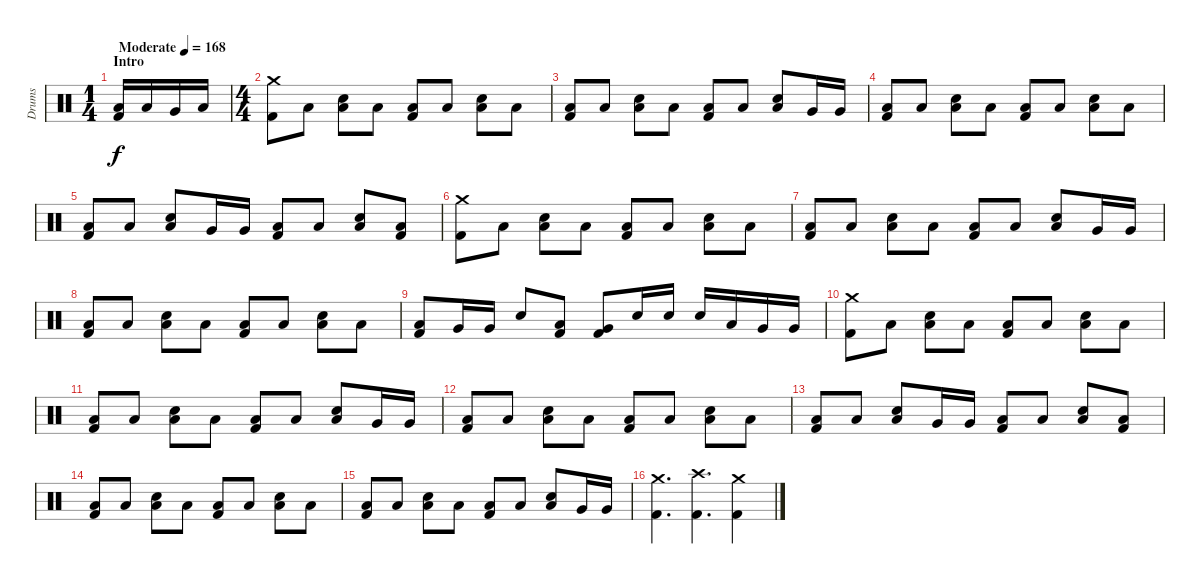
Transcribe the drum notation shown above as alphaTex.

\track ("Drums" "Drums") {instrument percussion}
\staff {score}
\articulation defaults
\ts (1 4)
\section ("" "Intro")
\tempo (168 "Moderate")
\clef neutral
\ks c
("Low Tom (hit)" "Kick (hit) 2").16{dy f} "Low Tom (hit)".16 "Very Low Tom (hit)".16 "Low Floor Tom (hit)".16 |
\ts (4 4)
("Crash medium (hit)" "Kick (hit) 2").8 "Low Floor Tom (hit)".8 ("Low Floor Tom (hit)" "Electric Snare (hit)").8 "Low Floor Tom (hit)".8 ("Low Floor Tom (hit)" "Kick (hit) 2").8 "Low Floor Tom (hit)".8 ("Low Floor Tom (hit)" "Electric Snare (hit)").8 "Low Floor Tom (hit)".8 |
("Low Floor Tom (hit)" "Kick (hit) 2").8 "Low Floor Tom (hit)".8 ("Low Floor Tom (hit)" "Electric Snare (hit)").8 "Low Floor Tom (hit)".8 ("Low Floor Tom (hit)" "Kick (hit) 2").8 "Low Floor Tom (hit)".8 ("Low Floor Tom (hit)" "Electric Snare (hit)").8 "Very Low Tom (hit)".16 "Very Low Tom (hit)".16 |
("Low Floor Tom (hit)" "Kick (hit) 2").8 "Low Floor Tom (hit)".8 ("Low Floor Tom (hit)" "Electric Snare (hit)").8 "Low Floor Tom (hit)".8 ("Low Floor Tom (hit)" "Kick (hit) 2").8 "Low Floor Tom (hit)".8 ("Low Floor Tom (hit)" "Electric Snare (hit)").8 "Low Floor Tom (hit)".8 |
("Low Floor Tom (hit)" "Kick (hit) 2").8 "Low Floor Tom (hit)".8 ("Low Floor Tom (hit)" "Electric Snare (hit)").8 "Very Low Tom (hit)".16 "Very Low Tom (hit)".16 ("Low Floor Tom (hit)" "Kick (hit) 2").8 "Low Floor Tom (hit)".8 ("Low Floor Tom (hit)" "Electric Snare (hit)").8 ("Low Tom (hit)" "Kick (hit) 2").8 |
("Crash medium (hit)" "Kick (hit) 2").8 "Low Floor Tom (hit)".8 ("Low Floor Tom (hit)" "Electric Snare (hit)").8 "Low Floor Tom (hit)".8 ("Low Floor Tom (hit)" "Kick (hit) 2").8 "Low Floor Tom (hit)".8 ("Low Floor Tom (hit)" "Electric Snare (hit)").8 "Low Floor Tom (hit)".8 |
("Low Floor Tom (hit)" "Kick (hit) 2").8 "Low Floor Tom (hit)".8 ("Low Floor Tom (hit)" "Electric Snare (hit)").8 "Low Floor Tom (hit)".8 ("Low Floor Tom (hit)" "Kick (hit) 2").8 "Low Floor Tom (hit)".8 ("Low Floor Tom (hit)" "Electric Snare (hit)").8 "Very Low Tom (hit)".16 "Very Low Tom (hit)".16 |
("Low Floor Tom (hit)" "Kick (hit) 2").8 "Low Floor Tom (hit)".8 ("Low Floor Tom (hit)" "Electric Snare (hit)").8 "Low Floor Tom (hit)".8 ("Low Floor Tom (hit)" "Kick (hit) 2").8 "Low Floor Tom (hit)".8 ("Low Floor Tom (hit)" "Electric Snare (hit)").8 "Low Floor Tom (hit)".8 |
("Low Tom (hit)" "Kick (hit) 2").8 "Very Low Tom (hit)".16 "Very Low Tom (hit)".16 "Electric Snare (hit)".8 ("Low Floor Tom (hit)" "Kick (hit) 2").8 ("Very Low Tom (hit)" "Kick (hit) 2").8 "Electric Snare (hit)".16 "Electric Snare (hit)".16 "Electric Snare (hit)".16 "Low Tom (hit)".16 "Very Low Tom (hit)".16 "Very Low Tom (hit)".16 |
("Crash medium (hit)" "Kick (hit) 2").8 "Low Floor Tom (hit)".8 ("Low Floor Tom (hit)" "Electric Snare (hit)").8 "Low Floor Tom (hit)".8 ("Low Floor Tom (hit)" "Kick (hit) 2").8 "Low Floor Tom (hit)".8 ("Low Floor Tom (hit)" "Electric Snare (hit)").8 "Low Floor Tom (hit)".8 |
("Low Floor Tom (hit)" "Kick (hit) 2").8 "Low Floor Tom (hit)".8 ("Low Floor Tom (hit)" "Electric Snare (hit)").8 "Low Floor Tom (hit)".8 ("Low Floor Tom (hit)" "Kick (hit) 2").8 "Low Floor Tom (hit)".8 ("Low Floor Tom (hit)" "Electric Snare (hit)").8 "Very Low Tom (hit)".16 "Very Low Tom (hit)".16 |
("Low Floor Tom (hit)" "Kick (hit) 2").8 "Low Floor Tom (hit)".8 ("Low Floor Tom (hit)" "Electric Snare (hit)").8 "Low Floor Tom (hit)".8 ("Low Floor Tom (hit)" "Kick (hit) 2").8 "Low Floor Tom (hit)".8 ("Low Floor Tom (hit)" "Electric Snare (hit)").8 "Low Floor Tom (hit)".8 |
("Low Floor Tom (hit)" "Kick (hit) 2").8 "Low Floor Tom (hit)".8 ("Low Floor Tom (hit)" "Electric Snare (hit)").8 "Very Low Tom (hit)".16 "Very Low Tom (hit)".16 ("Low Floor Tom (hit)" "Kick (hit) 2").8 "Low Floor Tom (hit)".8 ("Low Floor Tom (hit)" "Electric Snare (hit)").8 ("Low Tom (hit)" "Kick (hit) 2").8 |
("Low Floor Tom (hit)" "Kick (hit) 2").8 "Low Floor Tom (hit)".8 ("Low Floor Tom (hit)" "Electric Snare (hit)").8 "Low Floor Tom (hit)".8 ("Low Floor Tom (hit)" "Kick (hit) 2").8 "Low Floor Tom (hit)".8 ("Low Floor Tom (hit)" "Electric Snare (hit)").8 "Low Floor Tom (hit)".8 |
("Low Floor Tom (hit)" "Kick (hit) 2").8 "Low Floor Tom (hit)".8 ("Low Floor Tom (hit)" "Electric Snare (hit)").8 "Low Floor Tom (hit)".8 ("Low Floor Tom (hit)" "Kick (hit) 2").8 "Low Floor Tom (hit)".8 ("Low Floor Tom (hit)" "Electric Snare (hit)").8 "Very Low Tom (hit)".16 "Very Low Tom (hit)".16 |
("Crash medium (hit)" "Kick (hit) 2").4{d} ("Crash high (hit)" "Kick (hit) 2").4{d} ("Crash medium (hit)" "Kick (hit) 2").4
